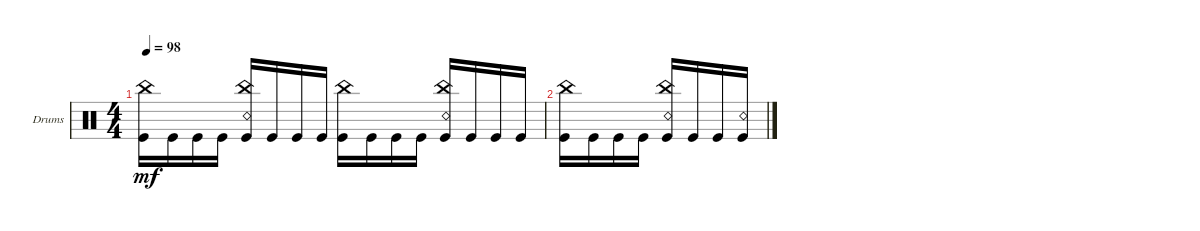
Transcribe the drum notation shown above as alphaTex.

\defaultSystemsLayout 4
\bracketExtendMode groupsimilarinstruments
\firstSystemTrackNameOrientation horizontal
\otherSystemsTrackNameOrientation horizontal
\track ("Drumkit" "Drums") {instrument percussion}
\staff {score}
\articulation defaults
\ts (4 4)
\tempo 98
\clef neutral
\scale
0.333333
\ks c
("Kick (hit)" "China (hit)").16{dy mf} "Kick (hit)".16 "Kick (hit)".16 "Kick (hit)".16 ("Kick (hit)" "China (hit)" "Snare (rim shot)").16 "Kick (hit)".16 "Kick (hit)".16 "Kick (hit)".16 ("Kick (hit)" "China (hit)").16 "Kick (hit)".16 "Kick (hit)".16 "Kick (hit)".16 ("Kick (hit)" "Snare (rim shot)" "China (hit)").16 "Kick (hit)".16 "Kick (hit)".16 "Kick (hit)".16 |
\scale
0.333333 ("Kick (hit)" "China (hit)").16 "Kick (hit)".16 "Kick (hit)".16 "Kick (hit)".16 ("Kick (hit)" "China (hit)" "Snare (rim shot)").16 "Kick (hit)".16 "Kick (hit)".16 ("Kick (hit)" "Snare (rim shot)").16 |
\scale
0.333333 |
\scale
0.333333 |
\scale
0.333333 |
\scale
0.333333 |
\scale
0.333333 |
\scale
0.333333 |
\scale
0.333333 |
\scale
0.333333 |
\scale
0.333333 |
\scale
0.333333 |
\scale
0.333333 |
\scale
0.333333 |
\scale
0.333333 |
\scale
0.333333
